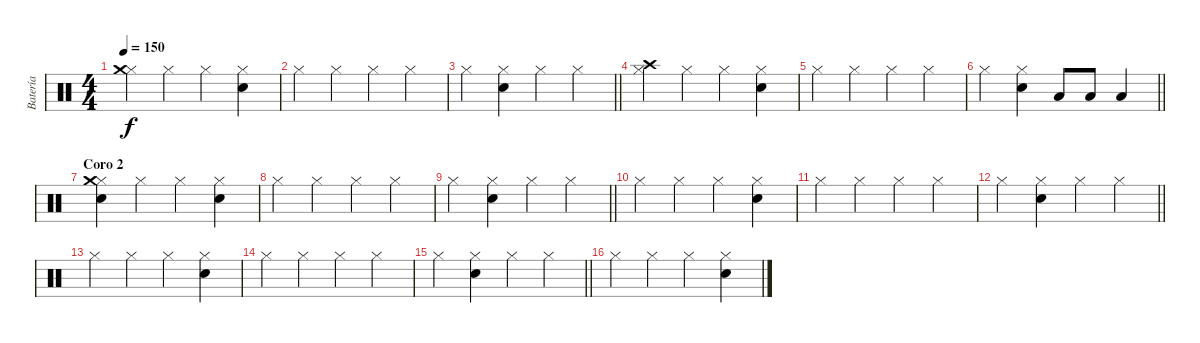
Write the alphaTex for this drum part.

\track ("Batería" "Batería") {instrument percussion}
\staff {score}
\articulation defaults
\ts (4 4)
\section ("" "")
\tempo 150
\clef neutral
\ks c
("Hi-Hat (closed)" "Crash medium (hit)").4{dy f} "Hi-Hat (closed)".4 "Hi-Hat (closed)".4 ("Hi-Hat (closed)" "Electric Snare (hit)").4 |
"Hi-Hat (closed)".4 "Hi-Hat (closed)".4 "Hi-Hat (closed)".4 "Hi-Hat (closed)".4 |
\barLineRight lightlight "Hi-Hat (closed)".4
("Hi-Hat (closed)" "Electric Snare (hit)").4 "Hi-Hat (closed)".4 "Hi-Hat (closed)".4 |
("Hi-Hat (closed)" "Crash high (hit)").4 "Hi-Hat (closed)".4 "Hi-Hat (closed)".4 ("Hi-Hat (closed)" "Electric Snare (hit)").4 |
"Hi-Hat (closed)".4 "Hi-Hat (closed)".4 "Hi-Hat (closed)".4 "Hi-Hat (closed)".4 |
\barLineRight lightlight "Hi-Hat (closed)".4
("Hi-Hat (closed)" "Electric Snare (hit)").4 "Low Tom (hit)".8 "Low Tom (hit)".8 "Low Tom (hit)".4 |
\section ("" "Coro 2")
("Hi-Hat (closed)" "Electric Snare (hit)" "Crash medium (hit)").4 "Hi-Hat (closed)".4 "Hi-Hat (closed)".4 ("Hi-Hat (closed)" "Electric Snare (hit)").4 |
"Hi-Hat (closed)".4 "Hi-Hat (closed)".4 "Hi-Hat (closed)".4 "Hi-Hat (closed)".4 |
\barLineRight lightlight "Hi-Hat (closed)".4
("Hi-Hat (closed)" "Electric Snare (hit)").4 "Hi-Hat (closed)".4 "Hi-Hat (closed)".4 |
"Hi-Hat (closed)".4 "Hi-Hat (closed)".4 "Hi-Hat (closed)".4 ("Hi-Hat (closed)" "Electric Snare (hit)").4 |
"Hi-Hat (closed)".4 "Hi-Hat (closed)".4 "Hi-Hat (closed)".4 "Hi-Hat (closed)".4 |
\barLineRight lightlight "Hi-Hat (closed)".4
("Hi-Hat (closed)" "Electric Snare (hit)").4 "Hi-Hat (closed)".4 "Hi-Hat (closed)".4 |
"Hi-Hat (closed)".4 "Hi-Hat (closed)".4 "Hi-Hat (closed)".4 ("Hi-Hat (closed)" "Electric Snare (hit)").4 |
"Hi-Hat (closed)".4 "Hi-Hat (closed)".4 "Hi-Hat (closed)".4 "Hi-Hat (closed)".4 |
\barLineRight lightlight "Hi-Hat (closed)".4
("Hi-Hat (closed)" "Electric Snare (hit)").4 "Hi-Hat (closed)".4 "Hi-Hat (closed)".4 |
"Hi-Hat (closed)".4 "Hi-Hat (closed)".4 "Hi-Hat (closed)".4 ("Hi-Hat (closed)" "Electric Snare (hit)").4
